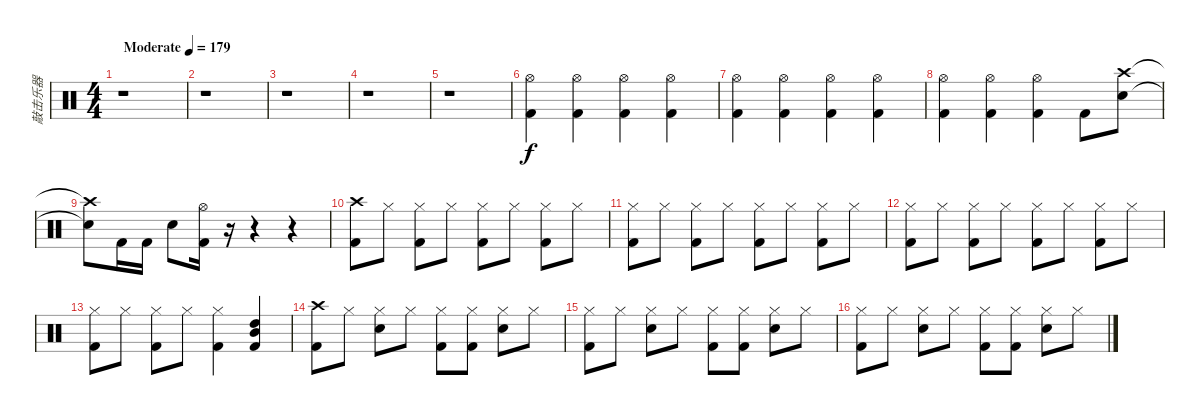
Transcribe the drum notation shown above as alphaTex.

\track ("敲击乐器" "敲击乐器") {instrument percussion}
\staff {score}
\articulation defaults
\ts (4 4)
\tempo (179 "Moderate")
\clef neutral
\ks c
r.1{dy f} |
r.1 |
r.1 |
r.1 |
r.1 |
("Kick (hit) 2" "Hi-Hat (open)").4 ("Hi-Hat (open)" "Kick (hit) 2").4 ("Kick (hit) 2" "Hi-Hat (open)").4 ("Hi-Hat (open)" "Kick (hit) 2").4 |
("Kick (hit) 2" "Hi-Hat (open)").4 ("Hi-Hat (open)" "Kick (hit) 2").4 ("Kick (hit) 2" "Hi-Hat (open)").4 ("Hi-Hat (open)" "Kick (hit) 2").4 |
("Kick (hit) 2" "Hi-Hat (open)").4 ("Hi-Hat (open)" "Kick (hit) 2").4 ("Kick (hit) 2" "Hi-Hat (open)").4 "Kick (hit) 2".8 ("Crash high (hit)" "Snare (hit) 2").8 |
("Crash high (hit)"{t} "Snare (hit) 2"{t}).8 "Kick (hit) 2".16 "Kick (hit) 2".16 "Snare (hit) 2".8 ("Hi-Hat (open)" "Kick (hit) 2").16 r.16 r.4 r.4 |
("Kick (hit) 2" "Crash high (hit)").8 "Hi-Hat (closed)".8 ("Hi-Hat (closed)" "Kick (hit) 2").8 "Hi-Hat (closed)".8 ("Kick (hit) 2" "Hi-Hat (closed)").8 "Hi-Hat (closed)".8 ("Hi-Hat (closed)" "Kick (hit) 2").8 "Hi-Hat (closed)".8 |
("Kick (hit) 2" "Hi-Hat (closed)").8 "Hi-Hat (closed)".8 ("Hi-Hat (closed)" "Kick (hit) 2").8 "Hi-Hat (closed)".8 ("Kick (hit) 2" "Hi-Hat (closed)").8 "Hi-Hat (closed)".8 ("Hi-Hat (closed)" "Kick (hit) 2").8 "Hi-Hat (closed)".8 |
("Kick (hit) 2" "Hi-Hat (closed)").8 "Hi-Hat (closed)".8 ("Hi-Hat (closed)" "Kick (hit) 2").8 "Hi-Hat (closed)".8 ("Kick (hit) 2" "Hi-Hat (closed)").8 "Hi-Hat (closed)".8 ("Hi-Hat (closed)" "Kick (hit) 2").8 "Hi-Hat (closed)".8 |
("Kick (hit) 2" "Hi-Hat (closed)").8 "Hi-Hat (closed)".8 ("Hi-Hat (closed)" "Kick (hit) 2").8 "Hi-Hat (closed)".8 ("Kick (hit) 2" "Hi-Hat (closed)").4 ("Kick (hit) 2" "High Tom (hit)" "Mid Tom (hit)").4 |
("Crash high (hit)" "Kick (hit) 2").8 "Hi-Hat (closed)".8 ("Hi-Hat (closed)" "Snare (hit) 2").8 "Hi-Hat (closed)".8 ("Hi-Hat (closed)" "Kick (hit) 2").8 ("Hi-Hat (closed)" "Kick (hit) 2").8 ("Hi-Hat (closed)" "Snare (hit) 2").8 "Hi-Hat (closed)".8 |
("Hi-Hat (closed)" "Kick (hit) 2").8 "Hi-Hat (closed)".8 ("Hi-Hat (closed)" "Snare (hit) 2").8 "Hi-Hat (closed)".8 ("Hi-Hat (closed)" "Kick (hit) 2").8 ("Hi-Hat (closed)" "Kick (hit) 2").8 ("Hi-Hat (closed)" "Snare (hit) 2").8 "Hi-Hat (closed)".8 |
("Hi-Hat (closed)" "Kick (hit) 2").8 "Hi-Hat (closed)".8 ("Hi-Hat (closed)" "Snare (hit) 2").8 "Hi-Hat (closed)".8 ("Hi-Hat (closed)" "Kick (hit) 2").8 ("Hi-Hat (closed)" "Kick (hit) 2").8 ("Hi-Hat (closed)" "Snare (hit) 2").8 "Hi-Hat (closed)".8
